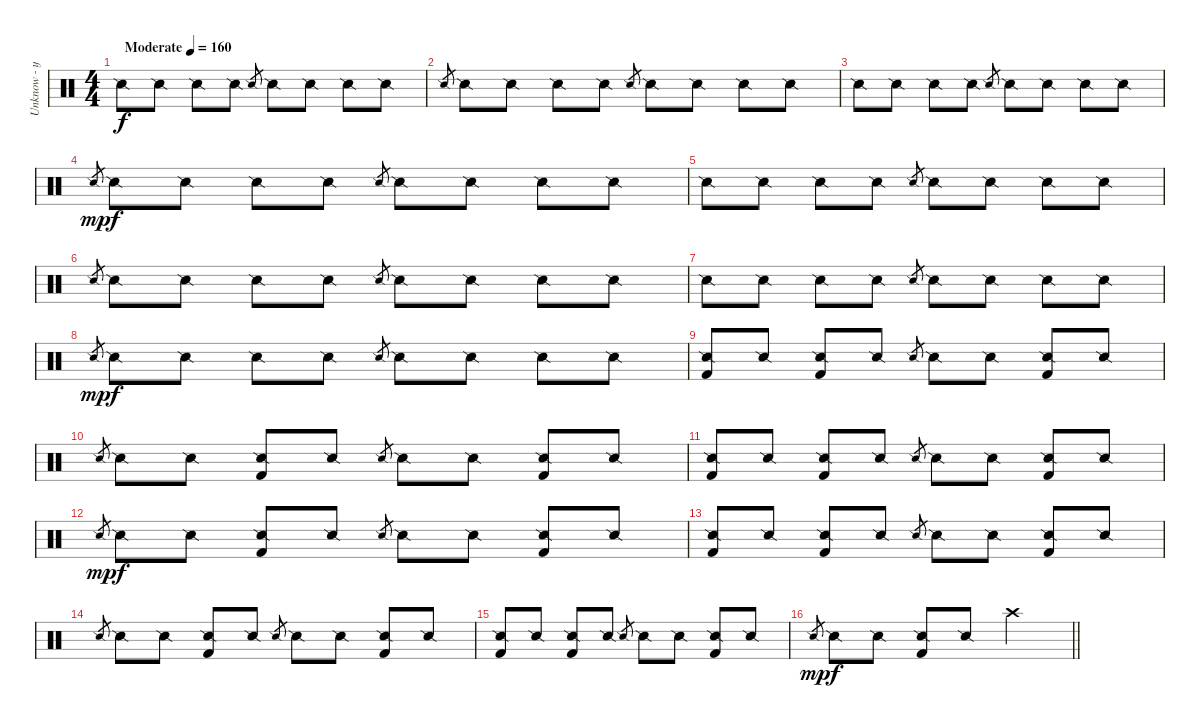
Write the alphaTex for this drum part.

\track ("Unknow - ударные" "Unknow - у") {instrument percussion}
\staff {score}
\articulation defaults
\ts (4 4)
\tempo (160 "Moderate")
\clef neutral
\ks c "Snare (side stick) 2".8{dy f} "Snare (side stick) 2".8 "Snare (side stick) 2".8 "Snare (side stick) 2".8 "Snare (side stick) 2".8{gr} "Snare (side stick) 2".8 "Snare (side stick) 2".8 "Snare (side stick) 2".8 "Snare (side stick) 2".8
|
"Snare (side stick) 2".8{gr} "Snare (side stick) 2".8 "Snare (side stick) 2".8 "Snare (side stick) 2".8 "Snare (side stick) 2".8 "Snare (side stick) 2".8{gr} "Snare (side stick) 2".8 "Snare (side stick) 2".8 "Snare (side stick) 2".8 "Snare (side stick) 2".8 |
"Snare (side stick) 2".8 "Snare (side stick) 2".8 "Snare (side stick) 2".8 "Snare (side stick) 2".8 "Snare (side stick) 2".8{gr} "Snare (side stick) 2".8 "Snare (side stick) 2".8 "Snare (side stick) 2".8 "Snare (side stick) 2".8 |
"Snare (side stick) 2".8{gr dy mp} "Snare (side stick) 2".8{dy f} "Snare (side stick) 2".8 "Snare (side stick) 2".8 "Snare (side stick) 2".8 "Snare (side stick) 2".8{gr} "Snare (side stick) 2".8 "Snare (side stick) 2".8 "Snare (side stick) 2".8 "Snare (side stick) 2".8 |
"Snare (side stick) 2".8 "Snare (side stick) 2".8 "Snare (side stick) 2".8 "Snare (side stick) 2".8 "Snare (side stick) 2".8{gr} "Snare (side stick) 2".8 "Snare (side stick) 2".8 "Snare (side stick) 2".8 "Snare (side stick) 2".8 |
"Snare (side stick) 2".8{gr} "Snare (side stick) 2".8 "Snare (side stick) 2".8 "Snare (side stick) 2".8 "Snare (side stick) 2".8 "Snare (side stick) 2".8{gr} "Snare (side stick) 2".8 "Snare (side stick) 2".8 "Snare (side stick) 2".8 "Snare (side stick) 2".8 |
"Snare (side stick) 2".8 "Snare (side stick) 2".8 "Snare (side stick) 2".8 "Snare (side stick) 2".8 "Snare (side stick) 2".8{gr} "Snare (side stick) 2".8 "Snare (side stick) 2".8 "Snare (side stick) 2".8 "Snare (side stick) 2".8 |
"Snare (side stick) 2".8{gr dy mp} "Snare (side stick) 2".8{dy f} "Snare (side stick) 2".8 "Snare (side stick) 2".8 "Snare (side stick) 2".8 "Snare (side stick) 2".8{gr} "Snare (side stick) 2".8 "Snare (side stick) 2".8 "Snare (side stick) 2".8 "Snare (side stick) 2".8 |
("Snare (side stick) 2" "Kick (hit) 2").8 "Snare (side stick) 2".8 ("Snare (side stick) 2" "Kick (hit) 2").8 "Snare (side stick) 2".8 "Snare (side stick) 2".8{gr} "Snare (side stick) 2".8 "Snare (side stick) 2".8 ("Snare (side stick) 2" "Kick (hit) 2").8 "Snare (side stick) 2".8 |
"Snare (side stick) 2".8{gr} "Snare (side stick) 2".8 "Snare (side stick) 2".8 ("Snare (side stick) 2" "Kick (hit) 2").8 "Snare (side stick) 2".8 "Snare (side stick) 2".8{gr} "Snare (side stick) 2".8 "Snare (side stick) 2".8 ("Snare (side stick) 2" "Kick (hit) 2").8 "Snare (side stick) 2".8 |
("Snare (side stick) 2" "Kick (hit) 2").8 "Snare (side stick) 2".8 ("Snare (side stick) 2" "Kick (hit) 2").8 "Snare (side stick) 2".8 "Snare (side stick) 2".8{gr} "Snare (side stick) 2".8 "Snare (side stick) 2".8 ("Snare (side stick) 2" "Kick (hit) 2").8 "Snare (side stick) 2".8 |
"Snare (side stick) 2".8{gr dy mp} "Snare (side stick) 2".8{dy f} "Snare (side stick) 2".8 ("Snare (side stick) 2" "Kick (hit) 2").8 "Snare (side stick) 2".8 "Snare (side stick) 2".8{gr} "Snare (side stick) 2".8 "Snare (side stick) 2".8 ("Snare (side stick) 2" "Kick (hit) 2").8 "Snare (side stick) 2".8 |
("Snare (side stick) 2" "Kick (hit) 2").8 "Snare (side stick) 2".8 ("Snare (side stick) 2" "Kick (hit) 2").8 "Snare (side stick) 2".8 "Snare (side stick) 2".8{gr} "Snare (side stick) 2".8 "Snare (side stick) 2".8 ("Snare (side stick) 2" "Kick (hit) 2").8 "Snare (side stick) 2".8 |
"Snare (side stick) 2".8{gr} "Snare (side stick) 2".8 "Snare (side stick) 2".8 ("Snare (side stick) 2" "Kick (hit) 2").8 "Snare (side stick) 2".8 "Snare (side stick) 2".8{gr} "Snare (side stick) 2".8 "Snare (side stick) 2".8 ("Snare (side stick) 2" "Kick (hit) 2").8 "Snare (side stick) 2".8 |
("Snare (side stick) 2" "Kick (hit) 2").8 "Snare (side stick) 2".8 ("Snare (side stick) 2" "Kick (hit) 2").8 "Snare (side stick) 2".8 "Snare (side stick) 2".8{gr} "Snare (side stick) 2".8 "Snare (side stick) 2".8 ("Snare (side stick) 2" "Kick (hit) 2").8 "Snare (side stick) 2".8 |
\barLineRight lightlight "Snare (side stick) 2".8{gr dy mp} "Snare (side stick) 2".8{dy f} "Snare (side stick) 2".8
("Snare (side stick) 2" "Kick (hit) 2").8 "Snare (side stick) 2".8 "Crash high (hit)".2
